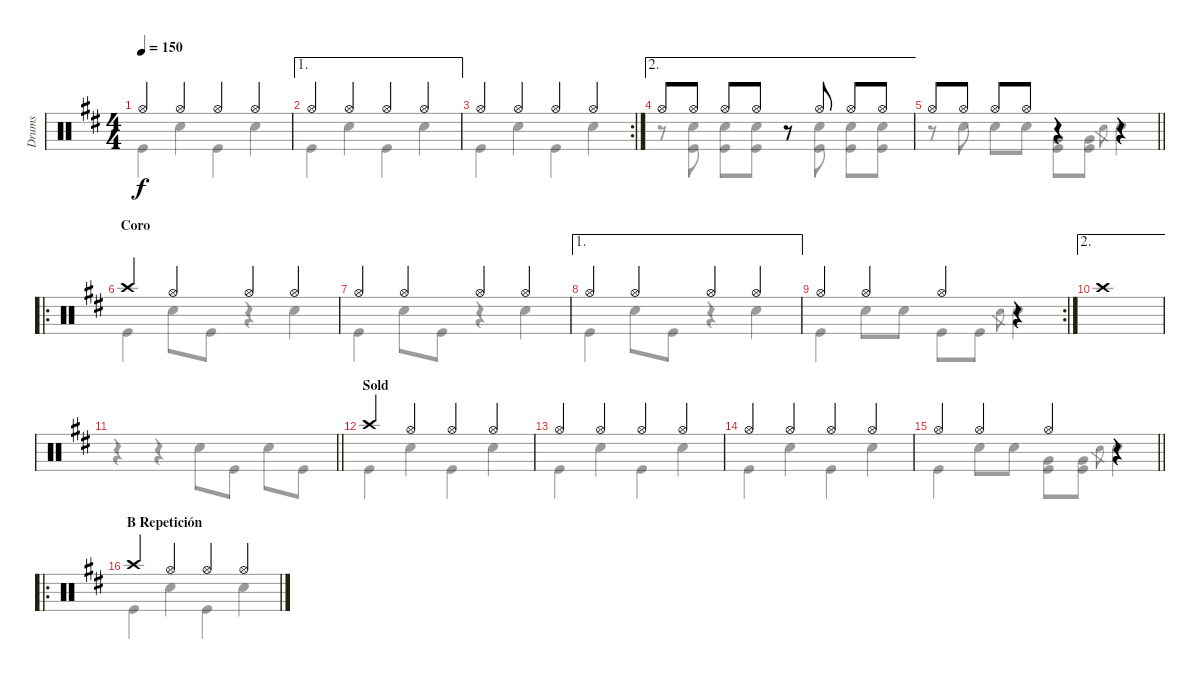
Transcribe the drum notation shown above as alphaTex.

\track ("Drums" "Drums") {instrument percussion}
\staff {score}
\articulation defaults
\voice
\ts (4 4)
\tempo 150
\clef neutral
\ks bminor "Hi-Hat (open)".4{dy f} "Hi-Hat (open)".4 "Hi-Hat (open)".4 "Hi-Hat (open)".4
|
\ae 1 "Hi-Hat (open)".4 "Hi-Hat (open)".4 "Hi-Hat (open)".4 "Hi-Hat (open)".4
|
\rc 2 "Hi-Hat (open)".4 "Hi-Hat (open)".4 "Hi-Hat (open)".4 "Hi-Hat (open)".4
|
\ae 2 "Hi-Hat (open)".8 "Hi-Hat (open)".8 "Hi-Hat (open)".8 "Hi-Hat (open)".8
r.8 "Hi-Hat (open)".8 "Hi-Hat (open)".8 "Hi-Hat (open)".8 |
\barLineRight lightlight "Hi-Hat (open)".8 "Hi-Hat (open)".8 "Hi-Hat (open)".8 "Hi-Hat (open)".8
r.4 r.4 |
\ro
\section ("" "Coro")
"Crash high (hit)".4 "Hi-Hat (open)".4 "Hi-Hat (open)".4 "Hi-Hat (open)".4 |
"Hi-Hat (open)".4 "Hi-Hat (open)".4 "Hi-Hat (open)".4 "Hi-Hat (open)".4 |
\ae 1 "Hi-Hat (open)".4 "Hi-Hat (open)".4 "Hi-Hat (open)".4 "Hi-Hat (open)".4
|
\rc 2 "Hi-Hat (open)".4 "Hi-Hat (open)".4 "Hi-Hat (open)".4
r.4 |
\ae 2 "Crash high (hit)".1
|
\barLineRight lightlight
|
\section ("" "Sold")
"Crash high (hit)".4 "Hi-Hat (open)".4 "Hi-Hat (open)".4 "Hi-Hat (open)".4 |
"Hi-Hat (open)".4 "Hi-Hat (open)".4 "Hi-Hat (open)".4 "Hi-Hat (open)".4 |
"Hi-Hat (open)".4 "Hi-Hat (open)".4 "Hi-Hat (open)".4 "Hi-Hat (open)".4 |
\barLineRight lightlight "Hi-Hat (open)".4 "Hi-Hat (open)".4 "Hi-Hat (open)".4
r.4 |
\ro
\section ("" "B Repetición")
"Crash high (hit)".4 "Hi-Hat (open)".4 "Hi-Hat (open)".4 "Hi-Hat (open)".4
\voice
\clef neutral
\ottava regular
\simile none
\ks bminor "Kick (hit)".4{dy f} "Snare (hit) 2".4 "Kick (hit)".4 "Snare (hit) 2".4
|
"Kick (hit)".4 "Snare (hit) 2".4 "Kick (hit)".4 "Snare (hit) 2".4 |
"Kick (hit)".4 "Snare (hit) 2".4 "Kick (hit)".4 "Snare (hit) 2".4 |
r.8 ("Snare (hit) 2" "Kick (hit)").8 ("Snare (hit) 2" "Kick (hit)").8 ("Snare (hit) 2" "Kick (hit)").8 r.8 ("Snare (hit) 2" "Kick (hit)").8 ("Snare (hit) 2" "Kick (hit)").8 ("Snare (hit) 2" "Kick (hit)").8 |
\barLineRight lightlight
r.8 "Snare (hit) 2".8 "Snare (hit) 2".8 "Snare (hit) 2".8 ("Very Low Tom (hit)" "Kick (hit)").8 ("Very Low Tom (hit)" "Kick (hit)").8 "Snare (hit) 2".8{gr} "Snare (hit) 2".4 |
"Kick (hit)".4 "Snare (hit) 2".8 "Kick (hit)".8 r.4 "Snare (hit) 2".4 |
"Kick (hit)".4 "Snare (hit) 2".8 "Kick (hit)".8 r.4 "Snare (hit) 2".4 |
"Kick (hit)".4 "Snare (hit) 2".8 "Kick (hit)".8 r.4 "Snare (hit) 2".4 |
"Kick (hit)".4 "Snare (hit) 2".8 "Snare (hit) 2".8 "Kick (hit)".8 "Kick (hit)".8 "Snare (hit) 2".8{gr} "Snare (hit) 2".4 |
|
\barLineRight lightlight
r.4 r.4 "Snare (hit) 2".8 "Kick (hit)".8 "Snare (hit) 2".8 "Kick (hit)".8 |
"Kick (hit)".4 "Snare (hit) 2".4 "Kick (hit)".4 "Snare (hit) 2".4 |
"Kick (hit)".4 "Snare (hit) 2".4 "Kick (hit)".4 "Snare (hit) 2".4 |
"Kick (hit)".4 "Snare (hit) 2".4 "Kick (hit)".4 "Snare (hit) 2".4 |
\barLineRight lightlight "Kick (hit)".4 "Snare (hit) 2".8 "Snare (hit) 2".8
("Very Low Tom (hit)" "Kick (hit)").8 ("Very Low Tom (hit)" "Kick (hit)").8 "Snare (hit) 2".8{gr} "Snare (hit) 2".4 |
"Kick (hit)".4 "Snare (hit) 2".4 "Kick (hit)".4 "Snare (hit) 2".4
